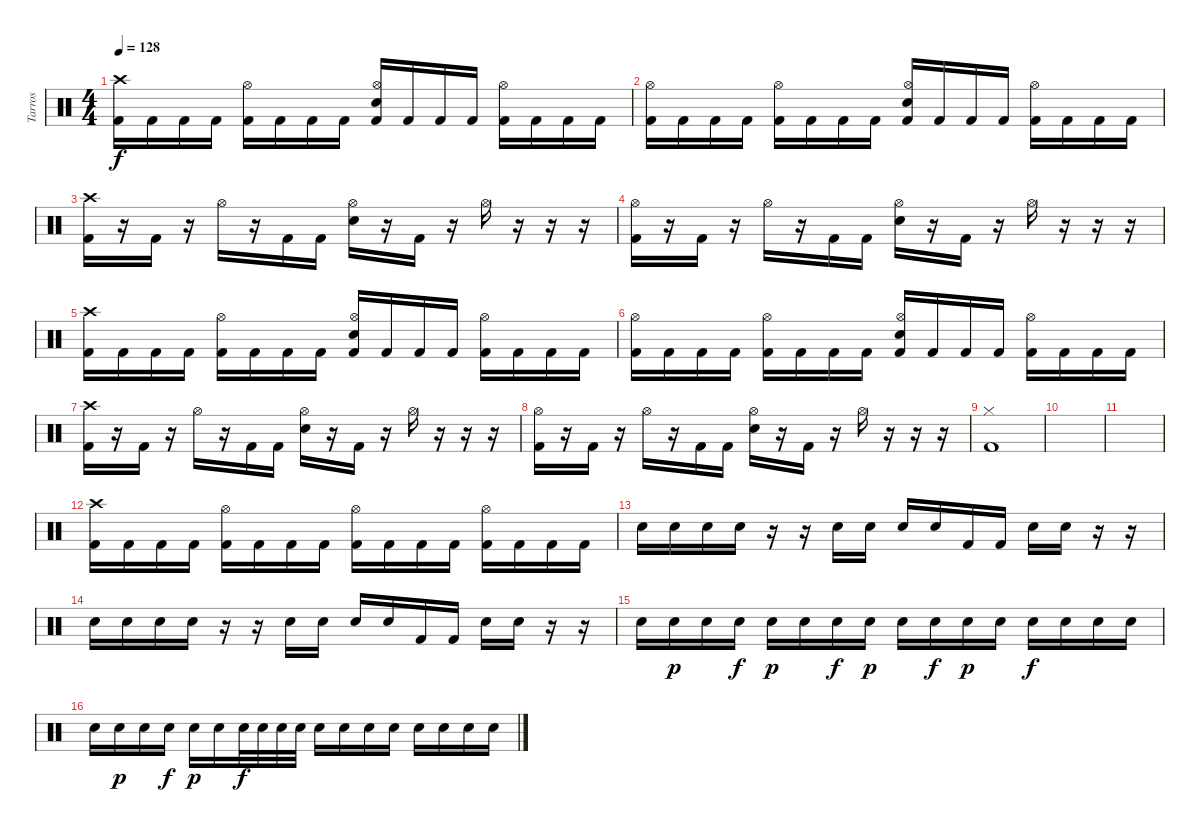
\track ("Tarros" "Tarros") {instrument percussion}
\staff {score}
\articulation defaults
\ts (4 4)
\tempo 128
\clef neutral
\ks c
("Crash high (hit)" "Kick (hit) 2").16{dy f} "Kick (hit) 2".16 "Kick (hit) 2".16 "Kick (hit) 2".16 ("Hi-Hat (open)" "Kick (hit) 2").16 "Kick (hit) 2".16 "Kick (hit) 2".16 "Kick (hit) 2".16 ("Hi-Hat (open)" "Electric Snare (hit)" "Kick (hit) 2").16 "Kick (hit) 2".16 "Kick (hit) 2".16 "Kick (hit) 2".16 ("Hi-Hat (open)" "Kick (hit) 2").16 "Kick (hit) 2".16 "Kick (hit) 2".16 "Kick (hit) 2".16 |
("Hi-Hat (open)" "Kick (hit) 2").16 "Kick (hit) 2".16 "Kick (hit) 2".16 "Kick (hit) 2".16 ("Hi-Hat (open)" "Kick (hit) 2").16 "Kick (hit) 2".16 "Kick (hit) 2".16 "Kick (hit) 2".16 ("Hi-Hat (open)" "Electric Snare (hit)" "Kick (hit) 2").16 "Kick (hit) 2".16 "Kick (hit) 2".16 "Kick (hit) 2".16 ("Hi-Hat (open)" "Kick (hit) 2").16 "Kick (hit) 2".16 "Kick (hit) 2".16 "Kick (hit) 2".16 |
("Crash high (hit)" "Kick (hit) 2").16 r.16 "Kick (hit) 2".16 r.16 "Hi-Hat (open)".16 r.16 "Kick (hit) 2".16 "Kick (hit) 2".16 ("Hi-Hat (open)" "Electric Snare (hit)").16 r.16 "Kick (hit) 2".16 r.16 "Hi-Hat (open)".16 r.16 r.16 r.16 |
("Hi-Hat (open)" "Kick (hit) 2").16 r.16 "Kick (hit) 2".16 r.16 "Hi-Hat (open)".16 r.16 "Kick (hit) 2".16 "Kick (hit) 2".16 ("Hi-Hat (open)" "Electric Snare (hit)").16 r.16 "Kick (hit) 2".16 r.16 "Hi-Hat (open)".16 r.16 r.16 r.16 |
("Crash high (hit)" "Kick (hit) 2").16 "Kick (hit) 2".16 "Kick (hit) 2".16 "Kick (hit) 2".16 ("Hi-Hat (open)" "Kick (hit) 2").16 "Kick (hit) 2".16 "Kick (hit) 2".16 "Kick (hit) 2".16 ("Hi-Hat (open)" "Electric Snare (hit)" "Kick (hit) 2").16 "Kick (hit) 2".16 "Kick (hit) 2".16 "Kick (hit) 2".16 ("Hi-Hat (open)" "Kick (hit) 2").16 "Kick (hit) 2".16 "Kick (hit) 2".16 "Kick (hit) 2".16 |
("Hi-Hat (open)" "Kick (hit) 2").16 "Kick (hit) 2".16 "Kick (hit) 2".16 "Kick (hit) 2".16 ("Hi-Hat (open)" "Kick (hit) 2").16 "Kick (hit) 2".16 "Kick (hit) 2".16 "Kick (hit) 2".16 ("Hi-Hat (open)" "Electric Snare (hit)" "Kick (hit) 2").16 "Kick (hit) 2".16 "Kick (hit) 2".16 "Kick (hit) 2".16 ("Hi-Hat (open)" "Kick (hit) 2").16 "Kick (hit) 2".16 "Kick (hit) 2".16 "Kick (hit) 2".16 |
("Crash high (hit)" "Kick (hit) 2").16 r.16 "Kick (hit) 2".16 r.16 "Hi-Hat (open)".16 r.16 "Kick (hit) 2".16 "Kick (hit) 2".16 ("Hi-Hat (open)" "Electric Snare (hit)").16 r.16 "Kick (hit) 2".16 r.16 "Hi-Hat (open)".16 r.16 r.16 r.16 |
("Hi-Hat (open)" "Kick (hit) 2").16 r.16 "Kick (hit) 2".16 r.16 "Hi-Hat (open)".16 r.16 "Kick (hit) 2".16 "Kick (hit) 2".16 ("Hi-Hat (open)" "Electric Snare (hit)").16 r.16 "Kick (hit) 2".16 r.16 "Hi-Hat (open)".16 r.16 r.16 r.16 |
("Hi-Hat (closed)" "Kick (hit) 2").1 |
|
|
("Crash high (hit)" "Kick (hit) 2").16 "Kick (hit) 2".16 "Kick (hit) 2".16 "Kick (hit) 2".16 ("Hi-Hat (open)" "Kick (hit) 2").16 "Kick (hit) 2".16 "Kick (hit) 2".16 "Kick (hit) 2".16 ("Hi-Hat (open)" "Kick (hit) 2").16 "Kick (hit) 2".16 "Kick (hit) 2".16 "Kick (hit) 2".16 ("Hi-Hat (open)" "Kick (hit) 2").16 "Kick (hit) 2".16 "Kick (hit) 2".16 "Kick (hit) 2".16 |
"Electric Snare (hit)".16 "Electric Snare (hit)".16 "Electric Snare (hit)".16 "Electric Snare (hit)".16 r.16 r.16 "Electric Snare (hit)".16 "Electric Snare (hit)".16 "Electric Snare (hit)".16 "Electric Snare (hit)".16 "Kick (hit) 2".16 "Kick (hit) 2".16 "Electric Snare (hit)".16 "Electric Snare (hit)".16 r.16 r.16 |
"Electric Snare (hit)".16 "Electric Snare (hit)".16 "Electric Snare (hit)".16 "Electric Snare (hit)".16 r.16 r.16 "Electric Snare (hit)".16 "Electric Snare (hit)".16 "Electric Snare (hit)".16 "Electric Snare (hit)".16 "Kick (hit) 2".16 "Kick (hit) 2".16 "Electric Snare (hit)".16 "Electric Snare (hit)".16 r.16 r.16 |
"Electric Snare (hit)".16 "Electric Snare (hit)".16{dy p} "Electric Snare (hit)".16 "Electric Snare (hit)".16{dy f} "Electric Snare (hit)".16{dy p} "Electric Snare (hit)".16 "Electric Snare (hit)".16{dy f} "Electric Snare (hit)".16{dy p} "Electric Snare (hit)".16 "Electric Snare (hit)".16{dy f} "Electric Snare (hit)".16{dy p} "Electric Snare (hit)".16 "Electric Snare (hit)".16{dy f} "Electric Snare (hit)".16 "Electric Snare (hit)".16 "Electric Snare (hit)".16 |
"Electric Snare (hit)".16 "Electric Snare (hit)".16{dy p} "Electric Snare (hit)".16 "Electric Snare (hit)".16{dy f} "Electric Snare (hit)".16{dy p} "Electric Snare (hit)".16 "Electric Snare (hit)".32{dy f} "Electric Snare (hit)".32 "Electric Snare (hit)".32 "Electric Snare (hit)".32 "Electric Snare (hit)".16 "Electric Snare (hit)".16 "Electric Snare (hit)".16 "Electric Snare (hit)".16 "Electric Snare (hit)".16 "Electric Snare (hit)".16 "Electric Snare (hit)".16 "Electric Snare (hit)".16
